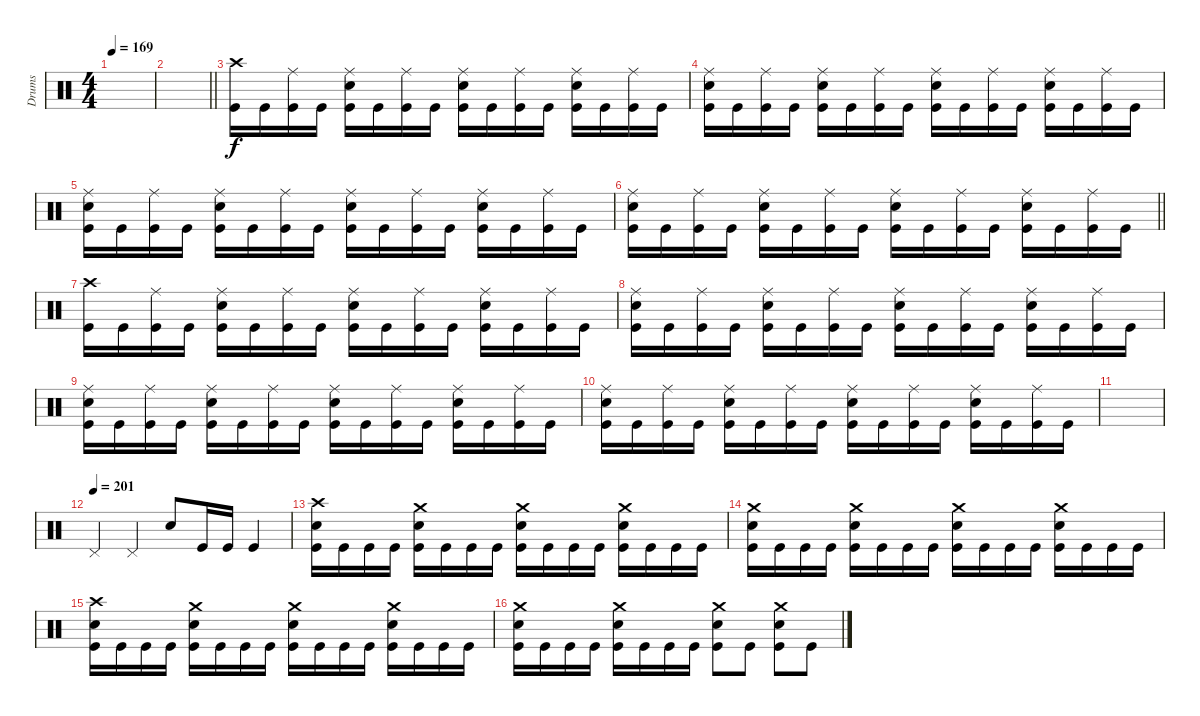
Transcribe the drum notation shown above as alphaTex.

\track ("Drums" "Drums") {instrument percussion}
\staff
\articulation defaults
\ts (4 4)
\tempo 169
\clef neutral
\ks c
|
\barLineRight lightlight
|
("Crash high (hit)" "Kick (hit)").16 "Kick (hit)".16 ("Ride (middle)" "Kick (hit)").16 "Kick (hit)".16 ("Ride (middle)" "Electric Snare (hit)" "Kick (hit)").16 "Kick (hit)".16 ("Ride (middle)" "Kick (hit)").16 "Kick (hit)".16 ("Ride (middle)" "Electric Snare (hit)" "Kick (hit)").16 "Kick (hit)".16 ("Ride (middle)" "Kick (hit)").16 "Kick (hit)".16 ("Ride (middle)" "Electric Snare (hit)" "Kick (hit)").16 "Kick (hit)".16 ("Ride (middle)" "Kick (hit)").16 "Kick (hit)".16 |
("Ride (middle)" "Electric Snare (hit)" "Kick (hit)").16 "Kick (hit)".16 ("Ride (middle)" "Kick (hit)").16 "Kick (hit)".16 ("Ride (middle)" "Electric Snare (hit)" "Kick (hit)").16 "Kick (hit)".16 ("Ride (middle)" "Kick (hit)").16 "Kick (hit)".16 ("Ride (middle)" "Electric Snare (hit)" "Kick (hit)").16 "Kick (hit)".16 ("Ride (middle)" "Kick (hit)").16 "Kick (hit)".16 ("Ride (middle)" "Electric Snare (hit)" "Kick (hit)").16 "Kick (hit)".16 ("Ride (middle)" "Kick (hit)").16 "Kick (hit)".16 |
("Ride (middle)" "Electric Snare (hit)" "Kick (hit)").16 "Kick (hit)".16 ("Ride (middle)" "Kick (hit)").16 "Kick (hit)".16 ("Ride (middle)" "Electric Snare (hit)" "Kick (hit)").16 "Kick (hit)".16 ("Ride (middle)" "Kick (hit)").16 "Kick (hit)".16 ("Ride (middle)" "Electric Snare (hit)" "Kick (hit)").16 "Kick (hit)".16 ("Ride (middle)" "Kick (hit)").16 "Kick (hit)".16 ("Ride (middle)" "Electric Snare (hit)" "Kick (hit)").16 "Kick (hit)".16 ("Ride (middle)" "Kick (hit)").16 "Kick (hit)".16 |
\barLineRight lightlight
("Ride (middle)" "Electric Snare (hit)" "Kick (hit)").16 "Kick (hit)".16 ("Ride (middle)" "Kick (hit)").16 "Kick (hit)".16 ("Ride (middle)" "Electric Snare (hit)" "Kick (hit)").16 "Kick (hit)".16 ("Ride (middle)" "Kick (hit)").16 "Kick (hit)".16 ("Ride (middle)" "Electric Snare (hit)" "Kick (hit)").16 "Kick (hit)".16 ("Ride (middle)" "Kick (hit)").16 "Kick (hit)".16 ("Ride (middle)" "Electric Snare (hit)" "Kick (hit)").16 "Kick (hit)".16 ("Ride (middle)" "Kick (hit)").16 "Kick (hit)".16 |
("Crash high (hit)" "Kick (hit)").16 "Kick (hit)".16 ("Ride (middle)" "Kick (hit)").16 "Kick (hit)".16 ("Ride (middle)" "Electric Snare (hit)" "Kick (hit)").16 "Kick (hit)".16 ("Ride (middle)" "Kick (hit)").16 "Kick (hit)".16 ("Ride (middle)" "Electric Snare (hit)" "Kick (hit)").16 "Kick (hit)".16 ("Ride (middle)" "Kick (hit)").16 "Kick (hit)".16 ("Ride (middle)" "Electric Snare (hit)" "Kick (hit)").16 "Kick (hit)".16 ("Ride (middle)" "Kick (hit)").16 "Kick (hit)".16 |
("Ride (middle)" "Electric Snare (hit)" "Kick (hit)").16 "Kick (hit)".16 ("Ride (middle)" "Kick (hit)").16 "Kick (hit)".16 ("Ride (middle)" "Electric Snare (hit)" "Kick (hit)").16 "Kick (hit)".16 ("Ride (middle)" "Kick (hit)").16 "Kick (hit)".16 ("Ride (middle)" "Electric Snare (hit)" "Kick (hit)").16 "Kick (hit)".16 ("Ride (middle)" "Kick (hit)").16 "Kick (hit)".16 ("Ride (middle)" "Electric Snare (hit)" "Kick (hit)").16 "Kick (hit)".16 ("Ride (middle)" "Kick (hit)").16 "Kick (hit)".16 |
("Ride (middle)" "Electric Snare (hit)" "Kick (hit)").16 "Kick (hit)".16 ("Ride (middle)" "Kick (hit)").16 "Kick (hit)".16 ("Ride (middle)" "Electric Snare (hit)" "Kick (hit)").16 "Kick (hit)".16 ("Ride (middle)" "Kick (hit)").16 "Kick (hit)".16 ("Ride (middle)" "Electric Snare (hit)" "Kick (hit)").16 "Kick (hit)".16 ("Ride (middle)" "Kick (hit)").16 "Kick (hit)".16 ("Ride (middle)" "Electric Snare (hit)" "Kick (hit)").16 "Kick (hit)".16 ("Ride (middle)" "Kick (hit)").16 "Kick (hit)".16 |
("Ride (middle)" "Electric Snare (hit)" "Kick (hit)").16 "Kick (hit)".16 ("Ride (middle)" "Kick (hit)").16 "Kick (hit)".16 ("Ride (middle)" "Electric Snare (hit)" "Kick (hit)").16 "Kick (hit)".16 ("Ride (middle)" "Kick (hit)").16 "Kick (hit)".16 ("Ride (middle)" "Electric Snare (hit)" "Kick (hit)").16 "Kick (hit)".16 ("Ride (middle)" "Kick (hit)").16 "Kick (hit)".16 ("Ride (middle)" "Electric Snare (hit)" "Kick (hit)").16 "Kick (hit)".16 ("Ride (middle)" "Kick (hit)").16 "Kick (hit)".16 |
|
\tempo (201)
"Pedal Hi-Hat (hit)".4{volume 15} "Pedal Hi-Hat (hit)".4 "Electric Snare (hit)".8 "Kick (hit)".16 "Kick (hit)".16 "Kick (hit)".4 |
("Crash high (hit)" "Electric Snare (hit)" "Kick (hit)").16 "Kick (hit)".16 "Kick (hit)".16 "Kick (hit)".16 ("Crash medium (hit)" "Electric Snare (hit)" "Kick (hit)").16 "Kick (hit)".16 "Kick (hit)".16 "Kick (hit)".16 ("Crash medium (hit)" "Electric Snare (hit)" "Kick (hit)").16 "Kick (hit)".16 "Kick (hit)".16 "Kick (hit)".16 ("Crash medium (hit)" "Electric Snare (hit)" "Kick (hit)").16 "Kick (hit)".16 "Kick (hit)".16 "Kick (hit)".16 |
("Crash medium (hit)" "Electric Snare (hit)" "Kick (hit)").16 "Kick (hit)".16 "Kick (hit)".16 "Kick (hit)".16 ("Crash medium (hit)" "Electric Snare (hit)" "Kick (hit)").16 "Kick (hit)".16 "Kick (hit)".16 "Kick (hit)".16 ("Crash medium (hit)" "Electric Snare (hit)" "Kick (hit)").16 "Kick (hit)".16 "Kick (hit)".16 "Kick (hit)".16 ("Crash medium (hit)" "Electric Snare (hit)" "Kick (hit)").16 "Kick (hit)".16 "Kick (hit)".16 "Kick (hit)".16 |
("Crash high (hit)" "Electric Snare (hit)" "Kick (hit)").16 "Kick (hit)".16 "Kick (hit)".16 "Kick (hit)".16 ("Crash medium (hit)" "Electric Snare (hit)" "Kick (hit)").16 "Kick (hit)".16 "Kick (hit)".16 "Kick (hit)".16 ("Crash medium (hit)" "Electric Snare (hit)" "Kick (hit)").16 "Kick (hit)".16 "Kick (hit)".16 "Kick (hit)".16 ("Crash medium (hit)" "Electric Snare (hit)" "Kick (hit)").16 "Kick (hit)".16 "Kick (hit)".16 "Kick (hit)".16 |
("Crash medium (hit)" "Electric Snare (hit)" "Kick (hit)").16 "Kick (hit)".16 "Kick (hit)".16 "Kick (hit)".16 ("Crash medium (hit)" "Electric Snare (hit)" "Kick (hit)").16 "Kick (hit)".16 "Kick (hit)".16 "Kick (hit)".16 ("Crash medium (hit)" "Electric Snare (hit)" "Kick (hit)").8 "Kick (hit)".8 ("Crash medium (hit)" "Electric Snare (hit)" "Kick (hit)").8 "Kick (hit)".8
